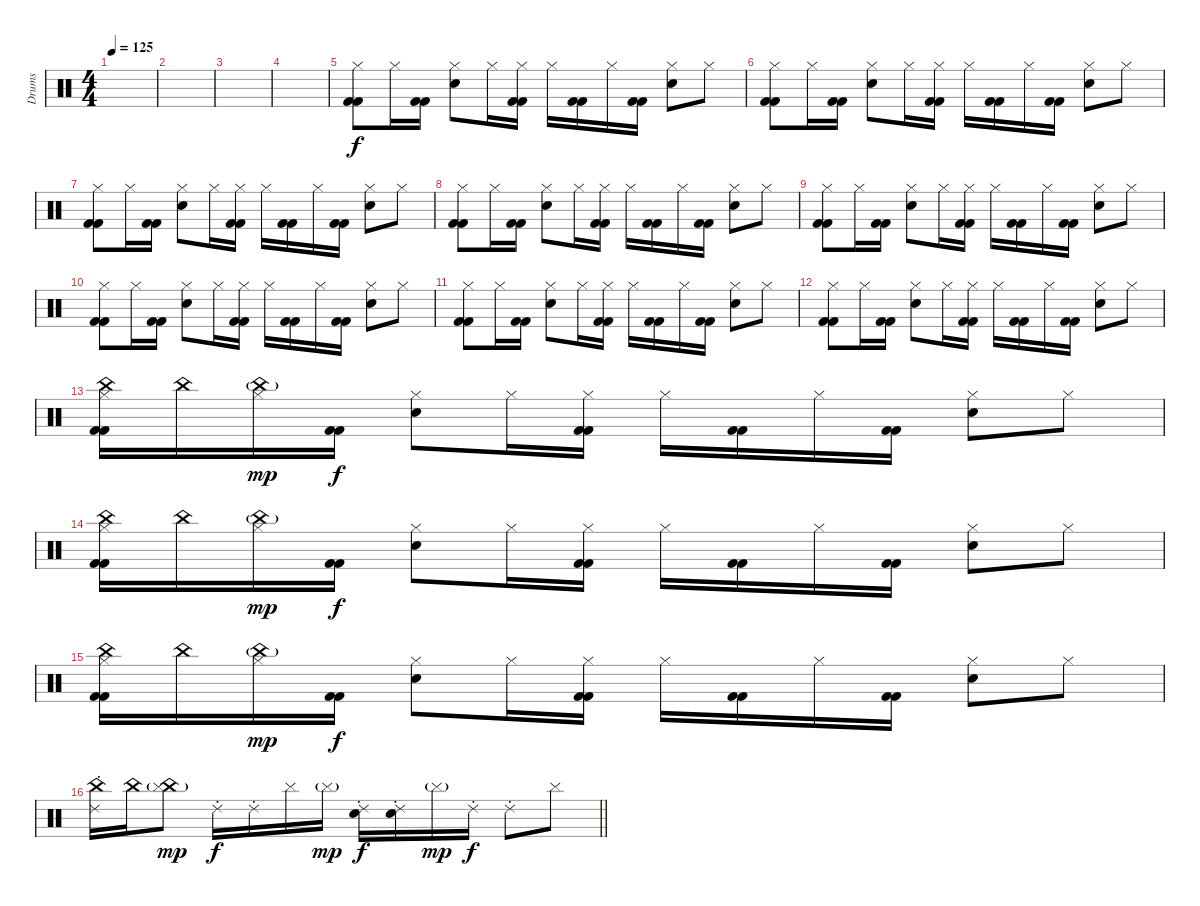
\track ("Drums" "Drums") {instrument percussion}
\staff {score}
\articulation defaults
\ts (4 4)
\tempo 125
\clef neutral
\ks c
|
|
|
|
("Hi-Hat (closed)" "Kick (hit) 2" "Kick (hit) 2").8 "Hi-Hat (closed)".16 ("Kick (hit) 2" "Kick (hit) 2").16 ("Hi-Hat (closed)" "Electric Snare (hit)").8 "Hi-Hat (closed)".16 ("Hi-Hat (closed)" "Kick (hit) 2" "Kick (hit) 2").16 "Hi-Hat (closed)".16 ("Kick (hit) 2" "Kick (hit) 2").16 "Hi-Hat (closed)".16 ("Kick (hit) 2" "Kick (hit) 2").16 ("Hi-Hat (closed)" "Electric Snare (hit)").8 "Hi-Hat (closed)".8 |
("Hi-Hat (closed)" "Kick (hit) 2" "Kick (hit) 2").8 "Hi-Hat (closed)".16 ("Kick (hit) 2" "Kick (hit) 2").16 ("Hi-Hat (closed)" "Electric Snare (hit)").8 "Hi-Hat (closed)".16 ("Hi-Hat (closed)" "Kick (hit) 2" "Kick (hit) 2").16 "Hi-Hat (closed)".16 ("Kick (hit) 2" "Kick (hit) 2").16 "Hi-Hat (closed)".16 ("Kick (hit) 2" "Kick (hit) 2").16 ("Hi-Hat (closed)" "Electric Snare (hit)").8 "Hi-Hat (closed)".8 |
("Hi-Hat (closed)" "Kick (hit) 2" "Kick (hit) 2").8 "Hi-Hat (closed)".16 ("Kick (hit) 2" "Kick (hit) 2").16 ("Hi-Hat (closed)" "Electric Snare (hit)").8 "Hi-Hat (closed)".16 ("Hi-Hat (closed)" "Kick (hit) 2" "Kick (hit) 2").16 "Hi-Hat (closed)".16 ("Kick (hit) 2" "Kick (hit) 2").16 "Hi-Hat (closed)".16 ("Kick (hit) 2" "Kick (hit) 2").16 ("Hi-Hat (closed)" "Electric Snare (hit)").8 "Hi-Hat (closed)".8 |
("Hi-Hat (closed)" "Kick (hit) 2" "Kick (hit) 2").8 "Hi-Hat (closed)".16 ("Kick (hit) 2" "Kick (hit) 2").16 ("Hi-Hat (closed)" "Electric Snare (hit)").8 "Hi-Hat (closed)".16 ("Hi-Hat (closed)" "Kick (hit) 2" "Kick (hit) 2").16 "Hi-Hat (closed)".16 ("Kick (hit) 2" "Kick (hit) 2").16 "Hi-Hat (closed)".16 ("Kick (hit) 2" "Kick (hit) 2").16 ("Hi-Hat (closed)" "Electric Snare (hit)").8 "Hi-Hat (closed)".8 |
("Hi-Hat (closed)" "Kick (hit) 2" "Kick (hit) 2").8 "Hi-Hat (closed)".16 ("Kick (hit) 2" "Kick (hit) 2").16 ("Hi-Hat (closed)" "Electric Snare (hit)").8 "Hi-Hat (closed)".16 ("Hi-Hat (closed)" "Kick (hit) 2" "Kick (hit) 2").16 "Hi-Hat (closed)".16 ("Kick (hit) 2" "Kick (hit) 2").16 "Hi-Hat (closed)".16 ("Kick (hit) 2" "Kick (hit) 2").16 ("Hi-Hat (closed)" "Electric Snare (hit)").8 "Hi-Hat (closed)".8 |
("Hi-Hat (closed)" "Kick (hit) 2" "Kick (hit) 2").8 "Hi-Hat (closed)".16 ("Kick (hit) 2" "Kick (hit) 2").16 ("Hi-Hat (closed)" "Electric Snare (hit)").8 "Hi-Hat (closed)".16 ("Hi-Hat (closed)" "Kick (hit) 2" "Kick (hit) 2").16 "Hi-Hat (closed)".16 ("Kick (hit) 2" "Kick (hit) 2").16 "Hi-Hat (closed)".16 ("Kick (hit) 2" "Kick (hit) 2").16 ("Hi-Hat (closed)" "Electric Snare (hit)").8 "Hi-Hat (closed)".8 |
("Hi-Hat (closed)" "Kick (hit) 2" "Kick (hit) 2").8 "Hi-Hat (closed)".16 ("Kick (hit) 2" "Kick (hit) 2").16 ("Hi-Hat (closed)" "Electric Snare (hit)").8 "Hi-Hat (closed)".16 ("Hi-Hat (closed)" "Kick (hit) 2" "Kick (hit) 2").16 "Hi-Hat (closed)".16 ("Kick (hit) 2" "Kick (hit) 2").16 "Hi-Hat (closed)".16 ("Kick (hit) 2" "Kick (hit) 2").16 ("Hi-Hat (closed)" "Electric Snare (hit)").8 "Hi-Hat (closed)".8 |
("Hi-Hat (closed)" "Kick (hit) 2" "Kick (hit) 2").8 "Hi-Hat (closed)".16 ("Kick (hit) 2" "Kick (hit) 2").16 ("Hi-Hat (closed)" "Electric Snare (hit)").8 "Hi-Hat (closed)".16 ("Hi-Hat (closed)" "Kick (hit) 2" "Kick (hit) 2").16 "Hi-Hat (closed)".16 ("Kick (hit) 2" "Kick (hit) 2").16 "Hi-Hat (closed)".16 ("Kick (hit) 2" "Kick (hit) 2").16 ("Hi-Hat (closed)" "Electric Snare (hit)").8 "Hi-Hat (closed)".8 |
("China (hit)" "Hi-Hat (closed)" "Kick (hit) 2" "Kick (hit) 2").16 "China (hit)".16 ("China (hit)"{g} "Hi-Hat (closed)").16{dy mp} ("Kick (hit) 2" "Kick (hit) 2").16{dy f} ("Hi-Hat (closed)" "Electric Snare (hit)").8 "Hi-Hat (closed)".16 ("Hi-Hat (closed)" "Kick (hit) 2" "Kick (hit) 2").16 "Hi-Hat (closed)".16 ("Kick (hit) 2" "Kick (hit) 2").16 "Hi-Hat (closed)".16 ("Kick (hit) 2" "Kick (hit) 2").16 ("Hi-Hat (closed)" "Electric Snare (hit)").8 "Hi-Hat (closed)".8 |
("China (hit)" "Hi-Hat (closed)" "Kick (hit) 2" "Kick (hit) 2").16 "China (hit)".16 ("China (hit)"{g} "Hi-Hat (closed)").16{dy mp} ("Kick (hit) 2" "Kick (hit) 2").16{dy f} ("Hi-Hat (closed)" "Electric Snare (hit)").8 "Hi-Hat (closed)".16 ("Hi-Hat (closed)" "Kick (hit) 2" "Kick (hit) 2").16 "Hi-Hat (closed)".16 ("Kick (hit) 2" "Kick (hit) 2").16 "Hi-Hat (closed)".16 ("Kick (hit) 2" "Kick (hit) 2").16 ("Hi-Hat (closed)" "Electric Snare (hit)").8 "Hi-Hat (closed)".8 |
("China (hit)" "Hi-Hat (closed)" "Kick (hit) 2" "Kick (hit) 2").16 "China (hit)".16 ("China (hit)"{g} "Hi-Hat (closed)").16{dy mp} ("Kick (hit) 2" "Kick (hit) 2").16{dy f} ("Hi-Hat (closed)" "Electric Snare (hit)").8 "Hi-Hat (closed)".16 ("Hi-Hat (closed)" "Kick (hit) 2" "Kick (hit) 2").16 "Hi-Hat (closed)".16 ("Kick (hit) 2" "Kick (hit) 2").16 "Hi-Hat (closed)".16 ("Kick (hit) 2" "Kick (hit) 2").16 ("Hi-Hat (closed)" "Electric Snare (hit)").8 "Hi-Hat (closed)".8 |
\barLineRight lightlight
("China (hit)" "Ride (choke) 2").16 "China (hit)".16 ("China (hit)"{g} "Cymbal (hit)").8{dy mp} "Ride (choke) 2".16{dy f} "Ride (choke) 2".16 "Cymbal (hit)".16 "Cymbal (hit)"{g}.16{dy mp} ("Ride (choke) 2" "Snare (hit) 2").16{dy f} ("Ride (choke) 2" "Electric Snare (hit)").16 "Cymbal (hit)"{g}.16{dy mp} "Ride (choke) 2".16{dy f} "Ride (choke) 2".8 "Cymbal (hit)".8
